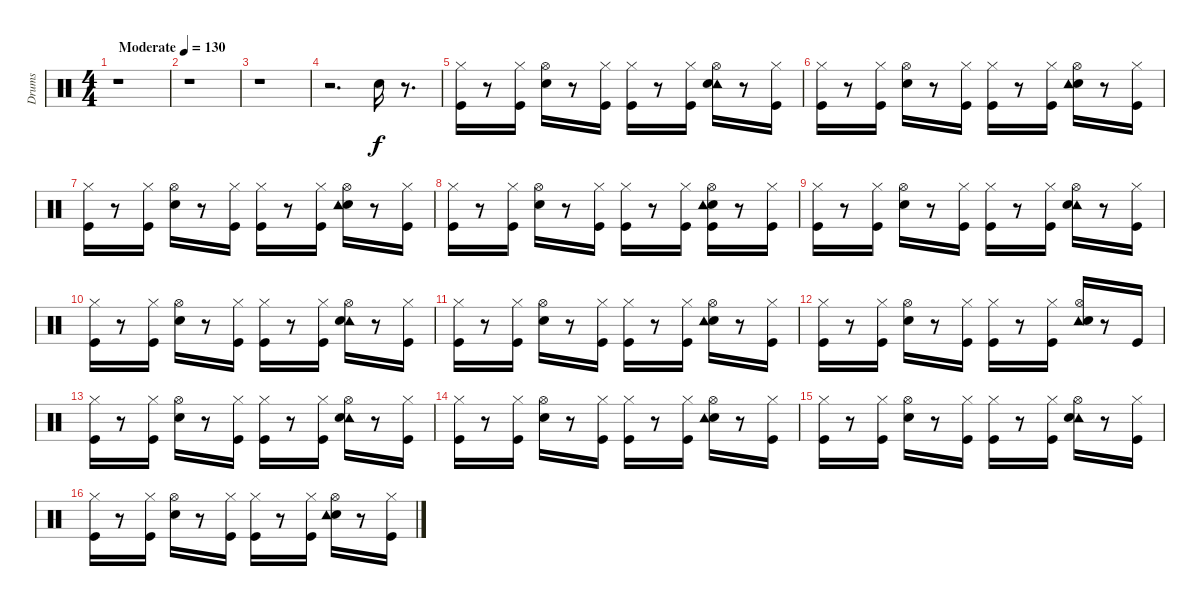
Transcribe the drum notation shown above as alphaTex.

\track ("Drums" "Drums") {instrument percussion}
\staff {score}
\articulation defaults
\ts (4 4)
\tempo (130 "Moderate")
\clef neutral
\ks c
r.1{dy f} |
r.1 |
r.1 |
r.2{d} "Electric Snare (hit)".16 r.8{d} |
("Kick (hit)" "Hi-Hat (closed)").16 r.8 ("Hi-Hat (closed)" "Kick (hit)").16 ("Electric Snare (hit)" "Hi-Hat (open)").16 r.8 ("Kick (hit)" "Hi-Hat (closed)").16 ("Kick (hit)" "Hi-Hat (closed)").16 r.8 ("Kick (hit)" "Hi-Hat (closed)").16 ("Hi-Hat (open)" "Tambourine (hit)" "Electric Snare (hit)").16 r.8 ("Kick (hit)" "Hi-Hat (closed)").16 |
("Hi-Hat (closed)" "Kick (hit)").16 r.8 ("Hi-Hat (closed)" "Kick (hit)").16 ("Electric Snare (hit)" "Hi-Hat (open)").16 r.8 ("Hi-Hat (closed)" "Kick (hit)").16 ("Kick (hit)" "Hi-Hat (closed)").16 r.8 ("Kick (hit)" "Hi-Hat (closed)").16 ("Electric Snare (hit)" "Hi-Hat (open)" "Tambourine (hit)").16 r.8 ("Kick (hit)" "Hi-Hat (closed)").16 |
("Kick (hit)" "Hi-Hat (closed)").16 r.8 ("Kick (hit)" "Hi-Hat (closed)").16 ("Hi-Hat (open)" "Electric Snare (hit)").16 r.8 ("Kick (hit)" "Hi-Hat (closed)").16 ("Kick (hit)" "Hi-Hat (closed)").16 r.8 ("Hi-Hat (closed)" "Kick (hit)").16 ("Electric Snare (hit)" "Tambourine (hit)" "Hi-Hat (open)").16 r.8 ("Hi-Hat (closed)" "Kick (hit)").16 |
("Hi-Hat (closed)" "Kick (hit)").16 r.8 ("Hi-Hat (closed)" "Kick (hit)").16 ("Electric Snare (hit)" "Hi-Hat (open)").16 r.8 ("Kick (hit)" "Hi-Hat (closed)").16 ("Kick (hit)" "Hi-Hat (closed)").16 r.8 ("Kick (hit)" "Hi-Hat (closed)").16 ("Electric Snare (hit)" "Hi-Hat (open)" "Tambourine (hit)" "Kick (hit)").16 r.8 ("Hi-Hat (closed)" "Kick (hit)").16 |
("Hi-Hat (closed)" "Kick (hit)").16 r.8 ("Hi-Hat (closed)" "Kick (hit)").16 ("Electric Snare (hit)" "Hi-Hat (open)").16 r.8 ("Kick (hit)" "Hi-Hat (closed)").16 ("Kick (hit)" "Hi-Hat (closed)").16 r.8 ("Kick (hit)" "Hi-Hat (closed)").16 ("Hi-Hat (open)" "Tambourine (hit)" "Electric Snare (hit)").16 r.8 ("Hi-Hat (closed)" "Kick (hit)").16 |
("Kick (hit)" "Hi-Hat (closed)").16 r.8 ("Kick (hit)" "Hi-Hat (closed)").16 ("Hi-Hat (open)" "Electric Snare (hit)").16 r.8 ("Hi-Hat (closed)" "Kick (hit)").16 ("Kick (hit)" "Hi-Hat (closed)").16 r.8 ("Hi-Hat (closed)" "Kick (hit)").16 ("Hi-Hat (open)" "Tambourine (hit)" "Electric Snare (hit)").16 r.8 ("Kick (hit)" "Hi-Hat (closed)").16 |
("Kick (hit)" "Hi-Hat (closed)").16 r.8 ("Kick (hit)" "Hi-Hat (closed)").16 ("Electric Snare (hit)" "Hi-Hat (open)").16 r.8 ("Kick (hit)" "Hi-Hat (closed)").16 ("Kick (hit)" "Hi-Hat (closed)").16 r.8 ("Hi-Hat (closed)" "Kick (hit)").16 ("Electric Snare (hit)" "Hi-Hat (open)" "Tambourine (hit)").16 r.8 ("Kick (hit)" "Hi-Hat (closed)").16 |
("Hi-Hat (closed)" "Kick (hit)").16 r.8 ("Hi-Hat (closed)" "Kick (hit)").16 ("Electric Snare (hit)" "Hi-Hat (open)").16 r.8 ("Hi-Hat (closed)" "Kick (hit)").16 ("Kick (hit)" "Hi-Hat (closed)").16 r.8 ("Hi-Hat (closed)" "Kick (hit)").16 ("Tambourine (hit)" "Electric Snare (hit)" "Hi-Hat (open)").16 r.8 "Kick (hit)".16 |
("Kick (hit)" "Hi-Hat (closed)").16 r.8 ("Hi-Hat (closed)" "Kick (hit)").16 ("Electric Snare (hit)" "Hi-Hat (open)").16 r.8 ("Kick (hit)" "Hi-Hat (closed)").16 ("Hi-Hat (closed)" "Kick (hit)").16 r.8 ("Kick (hit)" "Hi-Hat (closed)").16 ("Tambourine (hit)" "Electric Snare (hit)" "Hi-Hat (open)").16 r.8 ("Kick (hit)" "Hi-Hat (closed)").16 |
("Kick (hit)" "Hi-Hat (closed)").16 r.8 ("Kick (hit)" "Hi-Hat (closed)").16 ("Hi-Hat (open)" "Electric Snare (hit)").16 r.8 ("Kick (hit)" "Hi-Hat (closed)").16 ("Kick (hit)" "Hi-Hat (closed)").16 r.8 ("Kick (hit)" "Hi-Hat (closed)").16 ("Electric Snare (hit)" "Tambourine (hit)" "Hi-Hat (open)").16 r.8 ("Kick (hit)" "Hi-Hat (closed)").16 |
("Kick (hit)" "Hi-Hat (closed)").16 r.8 ("Hi-Hat (closed)" "Kick (hit)").16 ("Electric Snare (hit)" "Hi-Hat (open)").16 r.8 ("Kick (hit)" "Hi-Hat (closed)").16 ("Hi-Hat (closed)" "Kick (hit)").16 r.8 ("Kick (hit)" "Hi-Hat (closed)").16 ("Tambourine (hit)" "Electric Snare (hit)" "Hi-Hat (open)").16 r.8 ("Hi-Hat (closed)" "Kick (hit)").16 |
("Kick (hit)" "Hi-Hat (closed)").16 r.8 ("Kick (hit)" "Hi-Hat (closed)").16 ("Electric Snare (hit)" "Hi-Hat (open)").16 r.8 ("Kick (hit)" "Hi-Hat (closed)").16 ("Hi-Hat (closed)" "Kick (hit)").16 r.8 ("Hi-Hat (closed)" "Kick (hit)").16 ("Electric Snare (hit)" "Tambourine (hit)" "Hi-Hat (open)").16 r.8 ("Kick (hit)" "Hi-Hat (closed)").16
